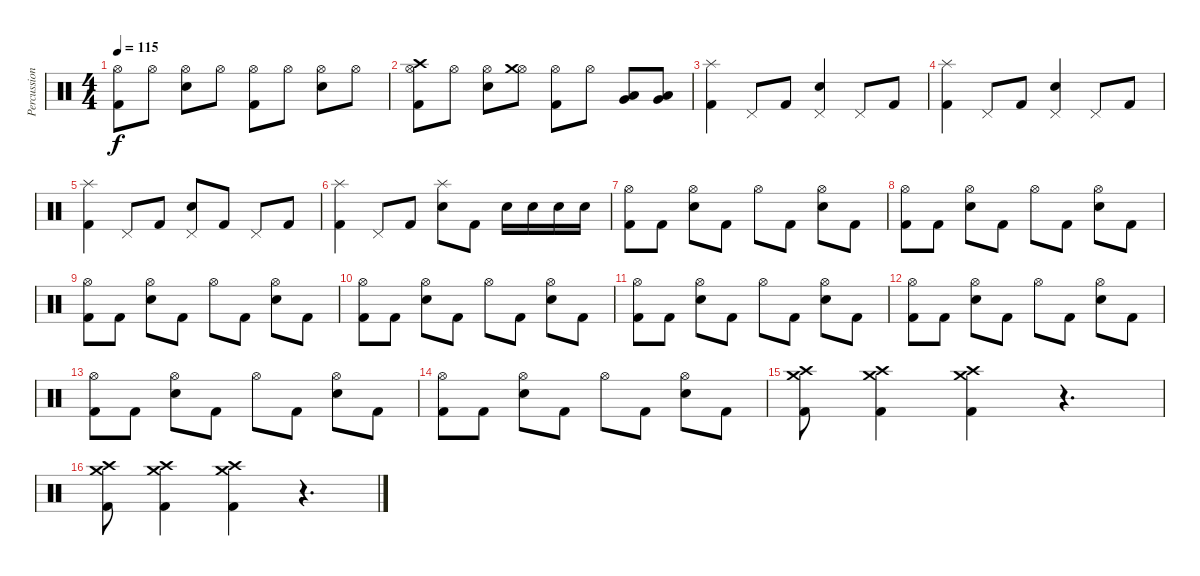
\track ("Percussion" "Percussion") {instrument percussion}
\staff {score}
\articulation defaults
\ts (4 4)
\tempo 115
\clef neutral
\ks c
("Kick (hit) 2" "Hi-Hat (open)").8{dy f} "Hi-Hat (open)".8 ("Electric Snare (hit)" "Hi-Hat (open)").8 "Hi-Hat (open)".8 ("Kick (hit) 2" "Hi-Hat (open)").8 "Hi-Hat (open)".8 ("Electric Snare (hit)" "Hi-Hat (open)").8 "Hi-Hat (open)".8 |
("Kick (hit) 2" "Hi-Hat (open)" "Crash high (hit)").8 "Hi-Hat (open)".8 ("Electric Snare (hit)" "Hi-Hat (open)").8 ("Hi-Hat (open)" "Crash medium (hit)").8 ("Kick (hit) 2" "Hi-Hat (open)").8 "Hi-Hat (open)".8 ("Low Tom (hit)" "Very Low Tom (hit)").8 ("Very Low Tom (hit)" "Low Floor Tom (hit)").8 |
("Kick (hit) 2" "Splash (hit)").4 "Pedal Hi-Hat (hit)".8 "Kick (hit) 2".8 ("Electric Snare (hit)" "Pedal Hi-Hat (hit)").4 "Pedal Hi-Hat (hit)".8 "Kick (hit) 2".8 |
("Kick (hit) 2" "Splash (hit)").4 "Pedal Hi-Hat (hit)".8 "Kick (hit) 2".8 ("Electric Snare (hit)" "Pedal Hi-Hat (hit)").4 "Pedal Hi-Hat (hit)".8 "Kick (hit) 2".8 |
("Kick (hit) 2" "Splash (hit)").4 "Pedal Hi-Hat (hit)".8 "Kick (hit) 2".8 ("Electric Snare (hit)" "Pedal Hi-Hat (hit)").8 "Kick (hit) 2".8 "Pedal Hi-Hat (hit)".8 "Kick (hit) 2".8 |
("Kick (hit) 2" "Splash (hit)").4 "Pedal Hi-Hat (hit)".8 "Kick (hit) 2".8 ("Electric Snare (hit)" "Splash (hit)").8 "Kick (hit) 2".8 "Electric Snare (hit)".16 "Electric Snare (hit)".16 "Electric Snare (hit)".16 "Electric Snare (hit)".16 |
("Hi-Hat (open)" "Kick (hit) 2").8 "Kick (hit) 2".8 ("Hi-Hat (open)" "Electric Snare (hit)").8 "Kick (hit) 2".8 "Hi-Hat (open)".8 "Kick (hit) 2".8 ("Hi-Hat (open)" "Electric Snare (hit)").8 "Kick (hit) 2".8 |
("Hi-Hat (open)" "Kick (hit) 2").8 "Kick (hit) 2".8 ("Hi-Hat (open)" "Electric Snare (hit)").8 "Kick (hit) 2".8 "Hi-Hat (open)".8 "Kick (hit) 2".8 ("Hi-Hat (open)" "Electric Snare (hit)").8 "Kick (hit) 2".8 |
("Hi-Hat (open)" "Kick (hit) 2").8 "Kick (hit) 2".8 ("Hi-Hat (open)" "Electric Snare (hit)").8 "Kick (hit) 2".8 "Hi-Hat (open)".8 "Kick (hit) 2".8 ("Hi-Hat (open)" "Electric Snare (hit)").8 "Kick (hit) 2".8 |
("Hi-Hat (open)" "Kick (hit) 2").8 "Kick (hit) 2".8 ("Hi-Hat (open)" "Electric Snare (hit)").8 "Kick (hit) 2".8 "Hi-Hat (open)".8 "Kick (hit) 2".8 ("Hi-Hat (open)" "Electric Snare (hit)").8 "Kick (hit) 2".8 |
("Hi-Hat (open)" "Kick (hit) 2").8 "Kick (hit) 2".8 ("Hi-Hat (open)" "Electric Snare (hit)").8 "Kick (hit) 2".8 "Hi-Hat (open)".8 "Kick (hit) 2".8 ("Hi-Hat (open)" "Electric Snare (hit)").8 "Kick (hit) 2".8 |
("Hi-Hat (open)" "Kick (hit) 2").8 "Kick (hit) 2".8 ("Hi-Hat (open)" "Electric Snare (hit)").8 "Kick (hit) 2".8 "Hi-Hat (open)".8 "Kick (hit) 2".8 ("Hi-Hat (open)" "Electric Snare (hit)").8 "Kick (hit) 2".8 |
("Hi-Hat (open)" "Kick (hit) 2").8 "Kick (hit) 2".8 ("Hi-Hat (open)" "Electric Snare (hit)").8 "Kick (hit) 2".8 "Hi-Hat (open)".8 "Kick (hit) 2".8 ("Hi-Hat (open)" "Electric Snare (hit)").8 "Kick (hit) 2".8 |
("Hi-Hat (open)" "Kick (hit) 2").8 "Kick (hit) 2".8 ("Hi-Hat (open)" "Electric Snare (hit)").8 "Kick (hit) 2".8 "Hi-Hat (open)".8 "Kick (hit) 2".8 ("Hi-Hat (open)" "Electric Snare (hit)").8 "Kick (hit) 2".8 |
("Kick (hit) 2" "Crash high (hit)" "Crash medium (hit)").8 ("Kick (hit) 2" "Crash high (hit)" "Crash medium (hit)").4 ("Kick (hit) 2" "Crash high (hit)" "Crash medium (hit)").4 r.4{d} |
("Kick (hit) 2" "Crash high (hit)" "Crash medium (hit)").8 ("Kick (hit) 2" "Crash high (hit)" "Crash medium (hit)").4 ("Kick (hit) 2" "Crash high (hit)" "Crash medium (hit)").4 r.4{d}
